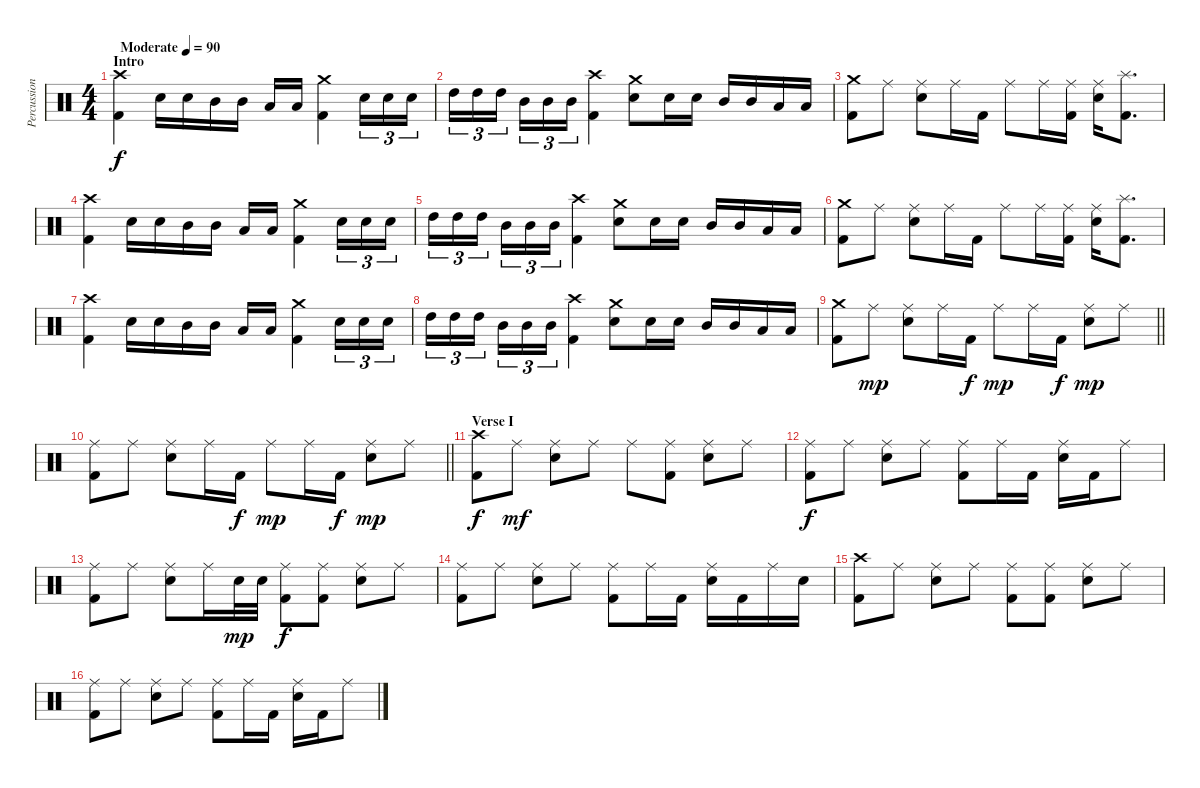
\track ("Percussions" "Percussion") {instrument percussion}
\staff {score}
\articulation defaults
\ts (4 4)
\section ("" "Intro")
\tempo (90 "Moderate")
\clef neutral
\ks c
("Crash high (hit)" "Kick (hit) 2").4{dy f} "Electric Snare (hit)".16 "Electric Snare (hit)".16 "Mid Tom (hit)".16 "Mid Tom (hit)".16 "Low Tom (hit)".16 "Low Tom (hit)".16 ("Crash medium (hit)" "Kick (hit) 2").4 "Electric Snare (hit)".16{tu (3 2)} "Electric Snare (hit)".16{tu (3 2)} "Electric Snare (hit)".16{tu (3 2)} |
"High Tom (hit)".16{tu (3 2)} "High Tom (hit)".16{tu (3 2)} "High Tom (hit)".16{tu (3 2) beam splitsecondary} "Mid Tom (hit)".16{tu (3 2)} "Mid Tom (hit)".16{tu (3 2)} "Mid Tom (hit)".16{tu (3 2)} ("Crash high (hit)" "Kick (hit) 2").4 ("Crash medium (hit)" "Electric Snare (hit)").8 "Electric Snare (hit)".16 "Electric Snare (hit)".16 "Mid Tom (hit)".16 "Mid Tom (hit)".16 "Low Tom (hit)".16 "Low Tom (hit)".16 |
("Crash medium (hit)" "Kick (hit) 2").8 "Ride (middle)".8 ("Ride (middle)" "Electric Snare (hit)").8 "Ride (middle)".16 "Kick (hit) 2".16 "Ride (middle)".8 "Ride (middle)".16 ("Ride (middle)" "Kick (hit) 2").16 ("Ride (middle)" "Electric Snare (hit)").16 ("Splash (hit)" "Kick (hit) 2").8{d} |
("Crash high (hit)" "Kick (hit) 2").4 "Electric Snare (hit)".16 "Electric Snare (hit)".16 "Mid Tom (hit)".16 "Mid Tom (hit)".16 "Low Tom (hit)".16 "Low Tom (hit)".16 ("Crash medium (hit)" "Kick (hit) 2").4 "Electric Snare (hit)".16{tu (3 2)} "Electric Snare (hit)".16{tu (3 2)} "Electric Snare (hit)".16{tu (3 2)} |
"High Tom (hit)".16{tu (3 2)} "High Tom (hit)".16{tu (3 2)} "High Tom (hit)".16{tu (3 2) beam splitsecondary} "Mid Tom (hit)".16{tu (3 2)} "Mid Tom (hit)".16{tu (3 2)} "Mid Tom (hit)".16{tu (3 2)} ("Crash high (hit)" "Kick (hit) 2").4 ("Crash medium (hit)" "Electric Snare (hit)").8 "Electric Snare (hit)".16 "Electric Snare (hit)".16 "Mid Tom (hit)".16 "Mid Tom (hit)".16 "Low Tom (hit)".16 "Low Tom (hit)".16 |
("Crash medium (hit)" "Kick (hit) 2").8 "Ride (middle)".8 ("Ride (middle)" "Electric Snare (hit)").8 "Ride (middle)".16 "Kick (hit) 2".16 "Ride (middle)".8 "Ride (middle)".16 ("Ride (middle)" "Kick (hit) 2").16 ("Ride (middle)" "Electric Snare (hit)").16 ("Splash (hit)" "Kick (hit) 2").8{d} |
("Crash high (hit)" "Kick (hit) 2").4 "Electric Snare (hit)".16 "Electric Snare (hit)".16 "Mid Tom (hit)".16 "Mid Tom (hit)".16 "Low Tom (hit)".16 "Low Tom (hit)".16 ("Crash medium (hit)" "Kick (hit) 2").4 "Electric Snare (hit)".16{tu (3 2)} "Electric Snare (hit)".16{tu (3 2)} "Electric Snare (hit)".16{tu (3 2)} |
"High Tom (hit)".16{tu (3 2)} "High Tom (hit)".16{tu (3 2)} "High Tom (hit)".16{tu (3 2) beam splitsecondary} "Mid Tom (hit)".16{tu (3 2)} "Mid Tom (hit)".16{tu (3 2)} "Mid Tom (hit)".16{tu (3 2)} ("Crash high (hit)" "Kick (hit) 2").4 ("Crash medium (hit)" "Electric Snare (hit)").8 "Electric Snare (hit)".16 "Electric Snare (hit)".16 "Mid Tom (hit)".16 "Mid Tom (hit)".16 "Low Tom (hit)".16 "Low Tom (hit)".16 |
\barLineRight lightlight
("Crash medium (hit)" "Kick (hit) 2").8 "Ride (middle)".8{dy mp} ("Ride (middle)" "Electric Snare (hit)").8 "Ride (middle)".16 "Kick (hit) 2".16{dy f} "Ride (middle)".8{dy mp} "Ride (middle)".16 "Kick (hit) 2".16{dy f} ("Ride (middle)" "Electric Snare (hit)").8{dy mp} "Ride (middle)".8 |
\barLineRight lightlight
("Ride (middle)" "Kick (hit) 2").8 "Ride (middle)".8 ("Ride (middle)" "Electric Snare (hit)").8 "Ride (middle)".16 "Kick (hit) 2".16{dy f} "Ride (middle)".8{dy mp} "Ride (middle)".16 "Kick (hit) 2".16{dy f} ("Ride (middle)" "Electric Snare (hit)").8{dy mp} "Ride (middle)".8 |
\section ("" "Verse I")
("Crash high (hit)" "Kick (hit) 2").8{dy f} "Ride (middle)".8{dy mf} ("Ride (middle)" "Electric Snare (hit)").8 "Ride (middle)".8 "Ride (middle)".8 ("Ride (middle)" "Kick (hit) 2").8 ("Ride (middle)" "Electric Snare (hit)").8 "Ride (middle)".8 |
("Ride (middle)" "Kick (hit) 2").8{dy f} "Ride (middle)".8 ("Ride (middle)" "Electric Snare (hit)").8 "Ride (middle)".8 ("Ride (middle)" "Kick (hit) 2").8 "Ride (middle)".16 "Kick (hit) 2".16 ("Ride (middle)" "Electric Snare (hit)").16 "Kick (hit) 2".16 "Ride (middle)".8 |
("Ride (middle)" "Kick (hit) 2").8 "Ride (middle)".8 ("Ride (middle)" "Electric Snare (hit)").8 "Ride (middle)".16 "Electric Snare (hit)".32{dy mp} "Electric Snare (hit)".32 ("Ride (middle)" "Kick (hit) 2").8{dy f} ("Ride (middle)" "Kick (hit) 2").8 ("Ride (middle)" "Electric Snare (hit)").8 "Ride (middle)".8 |
("Ride (middle)" "Kick (hit) 2").8 "Ride (middle)".8 ("Ride (middle)" "Electric Snare (hit)").8 "Ride (middle)".8 ("Ride (middle)" "Kick (hit) 2").8 "Ride (middle)".16 "Kick (hit) 2".16 ("Ride (middle)" "Electric Snare (hit)").16 "Kick (hit) 2".16 "Ride (middle)".16 "Electric Snare (hit)".16 |
("Crash high (hit)" "Kick (hit) 2").8 "Ride (middle)".8 ("Ride (middle)" "Electric Snare (hit)").8 "Ride (middle)".8 ("Ride (middle)" "Kick (hit) 2").8 ("Ride (middle)" "Kick (hit) 2").8 ("Ride (middle)" "Electric Snare (hit)").8 "Ride (middle)".8 |
("Ride (middle)" "Kick (hit) 2").8 "Ride (middle)".8 ("Ride (middle)" "Electric Snare (hit)").8 "Ride (middle)".8 ("Ride (middle)" "Kick (hit) 2").8 "Ride (middle)".16 "Kick (hit) 2".16 ("Ride (middle)" "Electric Snare (hit)").16 "Kick (hit) 2".16 "Ride (middle)".8
